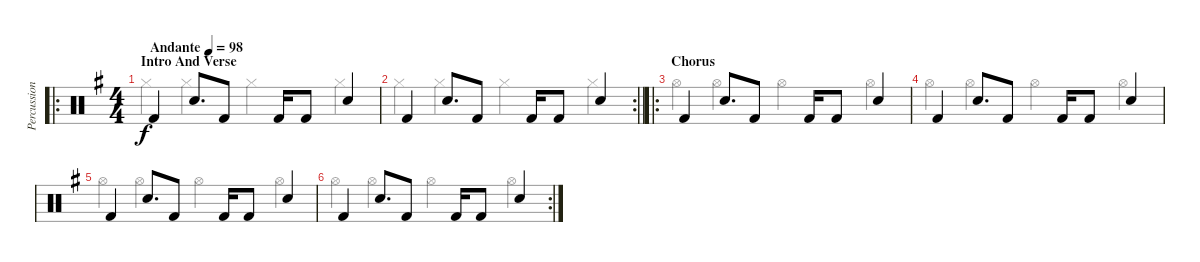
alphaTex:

\track ("Percussion" "Percussion") {instrument percussion}
\staff {score}
\articulation defaults
\voice
\ro
\ts (4 4)
\section ("" "Intro And Verse")
\tempo (98 "Andante")
\clef neutral
\ks g "Kick (hit) 2".4{dy f} "Snare (hit) 2".8{d} "Kick (hit) 2".8 "Kick (hit) 2".16 "Kick (hit) 2".8 "Snare (hit) 2".4
|
\rc 2
\barLineRight lightlight "Kick (hit) 2".4 "Snare (hit) 2".8{d} "Kick (hit) 2".8 "Kick (hit) 2".16 "Kick (hit) 2".8 "Snare (hit) 2".4
|
\ro
\section ("" "Chorus")
"Kick (hit) 2".4 "Snare (hit) 2".8{d} "Kick (hit) 2".8 "Kick (hit) 2".16 "Kick (hit) 2".8 "Snare (hit) 2".4 |
"Kick (hit) 2".4 "Snare (hit) 2".8{d} "Kick (hit) 2".8 "Kick (hit) 2".16 "Kick (hit) 2".8 "Snare (hit) 2".4 |
"Kick (hit) 2".4 "Snare (hit) 2".8{d} "Kick (hit) 2".8 "Kick (hit) 2".16 "Kick (hit) 2".8 "Snare (hit) 2".4 |
\rc 2 "Kick (hit) 2".4 "Snare (hit) 2".8{d} "Kick (hit) 2".8 "Kick (hit) 2".16 "Kick (hit) 2".8 "Snare (hit) 2".4
\voice
\clef neutral
\ottava regular
\simile none
\ks g "Hi-Hat (closed)".4{dy f} "Hi-Hat (closed)".4 "Hi-Hat (closed)".4 "Hi-Hat (closed)".4
|
\barLineRight lightlight "Hi-Hat (closed)".4 "Hi-Hat (closed)".4 "Hi-Hat (closed)".4 "Hi-Hat (closed)".4
|
"Hi-Hat (open)".4 "Hi-Hat (open)".4 "Hi-Hat (open)".4 "Hi-Hat (open)".4 |
"Hi-Hat (open)".4 "Hi-Hat (open)".4 "Hi-Hat (open)".4 "Hi-Hat (open)".4 |
"Hi-Hat (open)".4 "Hi-Hat (open)".4 "Hi-Hat (open)".4 "Hi-Hat (open)".4 |
"Hi-Hat (open)".4 "Hi-Hat (open)".4 "Hi-Hat (open)".4 "Hi-Hat (open)".4
